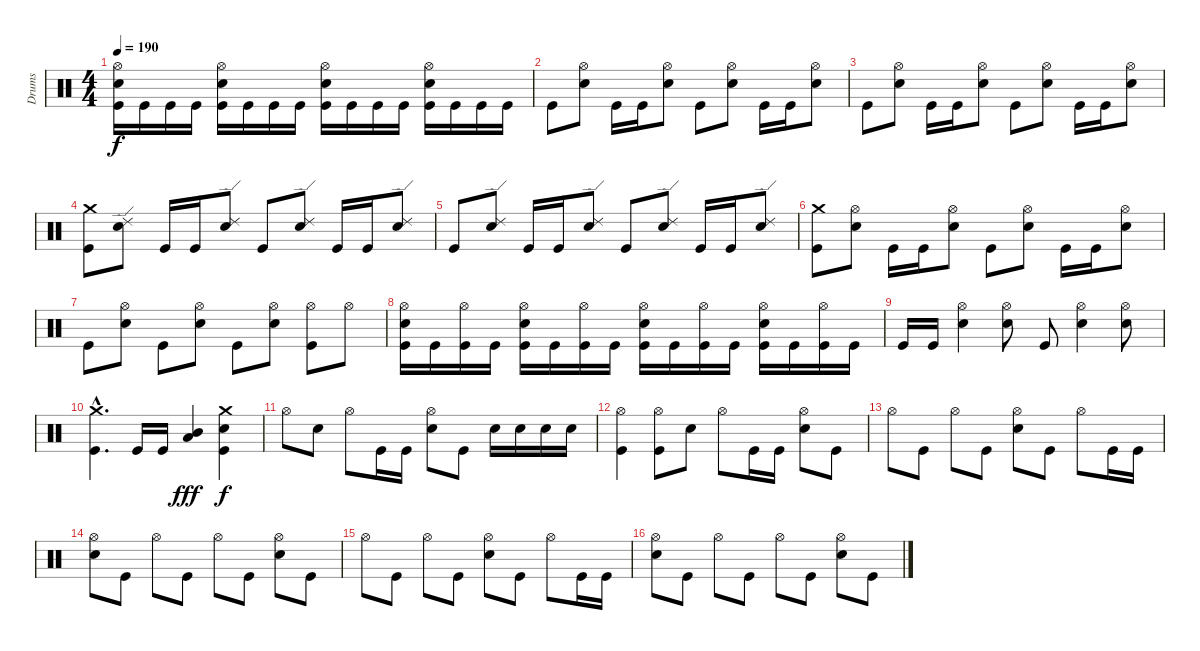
\track ("Drums" "Drums") {instrument percussion}
\staff {score}
\articulation defaults
\ts (4 4)
\tempo 190
\clef neutral
\ks c
("Hi-Hat (open)" "Electric Snare (hit)" "Kick (hit)").16{dy f} "Kick (hit)".16 "Kick (hit)".16 "Kick (hit)".16 ("Hi-Hat (open)" "Electric Snare (hit)" "Kick (hit)").16 "Kick (hit)".16 "Kick (hit)".16 "Kick (hit)".16 ("Hi-Hat (open)" "Electric Snare (hit)" "Kick (hit)").16 "Kick (hit)".16 "Kick (hit)".16 "Kick (hit)".16 ("Hi-Hat (open)" "Electric Snare (hit)" "Kick (hit)").16 "Kick (hit)".16 "Kick (hit)".16 "Kick (hit)".16 |
"Kick (hit)".8 ("Hi-Hat (open)" "Electric Snare (hit)").8 "Kick (hit)".16 "Kick (hit)".16 ("Hi-Hat (open)" "Electric Snare (hit)").8 "Kick (hit)".8 ("Hi-Hat (open)" "Electric Snare (hit)").8 "Kick (hit)".16 "Kick (hit)".16 ("Hi-Hat (open)" "Electric Snare (hit)").8 |
"Kick (hit)".8 ("Hi-Hat (open)" "Electric Snare (hit)").8 "Kick (hit)".16 "Kick (hit)".16 ("Hi-Hat (open)" "Electric Snare (hit)").8 "Kick (hit)".8 ("Hi-Hat (open)" "Electric Snare (hit)").8 "Kick (hit)".16 "Kick (hit)".16 ("Hi-Hat (open)" "Electric Snare (hit)").8 |
("Crash medium (hit)" "Kick (hit)").8 ("Ride (edge) 2" "Electric Snare (hit)").8 "Kick (hit)".16 "Kick (hit)".16 ("Ride (edge) 2" "Electric Snare (hit)").8 "Kick (hit)".8 ("Ride (edge) 2" "Electric Snare (hit)").8 "Kick (hit)".16 "Kick (hit)".16 ("Ride (edge) 2" "Electric Snare (hit)").8 |
"Kick (hit)".8 ("Ride (edge) 2" "Electric Snare (hit)").8 "Kick (hit)".16 "Kick (hit)".16 ("Ride (edge) 2" "Electric Snare (hit)").8 "Kick (hit)".8 ("Ride (edge) 2" "Electric Snare (hit)").8 "Kick (hit)".16 "Kick (hit)".16 ("Ride (edge) 2" "Electric Snare (hit)").8 |
("Crash medium (hit)" "Kick (hit)").8 ("Hi-Hat (open)" "Electric Snare (hit)").8 "Kick (hit)".16 "Kick (hit)".16 ("Hi-Hat (open)" "Electric Snare (hit)").8 "Kick (hit)".8 ("Hi-Hat (open)" "Electric Snare (hit)").8 "Kick (hit)".16 "Kick (hit)".16 ("Hi-Hat (open)" "Electric Snare (hit)").8 |
"Kick (hit)".8 ("Hi-Hat (open)" "Electric Snare (hit)").8 "Kick (hit)".8 ("Hi-Hat (open)" "Electric Snare (hit)").8 "Kick (hit)".8 ("Hi-Hat (open)" "Electric Snare (hit)").8 ("Hi-Hat (open)" "Kick (hit)").8 "Hi-Hat (open)".8 |
("Hi-Hat (open)" "Electric Snare (hit)" "Kick (hit)").16 "Kick (hit)".16 ("Hi-Hat (open)" "Kick (hit)").16 "Kick (hit)".16 ("Hi-Hat (open)" "Electric Snare (hit)" "Kick (hit)").16 "Kick (hit)".16 ("Hi-Hat (open)" "Kick (hit)").16 "Kick (hit)".16 ("Hi-Hat (open)" "Electric Snare (hit)" "Kick (hit)").16 "Kick (hit)".16 ("Hi-Hat (open)" "Kick (hit)").16 "Kick (hit)".16 ("Hi-Hat (open)" "Electric Snare (hit)" "Kick (hit)").16 "Kick (hit)".16 ("Hi-Hat (open)" "Kick (hit)").16 "Kick (hit)".16 |
"Kick (hit)".16 "Kick (hit)".16 ("Hi-Hat (open)" "Electric Snare (hit)").4 ("Hi-Hat (open)" "Electric Snare (hit)").8 "Kick (hit)".8 ("Hi-Hat (open)" "Electric Snare (hit)").4 ("Hi-Hat (open)" "Electric Snare (hit)").8 |
("Crash medium (hit)"{hac} "Kick (hit)"{hac}).4{d} "Kick (hit)".16 "Kick (hit)".16 ("Mid Tom (hit)" "Low Tom (hit)").4{dy fff} ("Kick (hit)" "Crash medium (hit)" "Electric Snare (hit)").4{dy f} |
"Hi-Hat (open)".8 "Electric Snare (hit)".8 "Hi-Hat (open)".8 "Kick (hit)".16 "Kick (hit)".16 ("Hi-Hat (open)" "Electric Snare (hit)").8 "Kick (hit)".8 "Electric Snare (hit)".16 "Electric Snare (hit)".16 "Electric Snare (hit)".16 "Electric Snare (hit)".16 |
("Hi-Hat (open)" "Kick (hit)").4 ("Hi-Hat (open)" "Kick (hit)").8 "Electric Snare (hit)".8 "Hi-Hat (open)".8 "Kick (hit)".16 "Kick (hit)".16 ("Hi-Hat (open)" "Electric Snare (hit)").8 "Kick (hit)".8 |
"Hi-Hat (open)".8 "Kick (hit)".8 "Hi-Hat (open)".8 "Kick (hit)".8 ("Hi-Hat (open)" "Electric Snare (hit)").8 "Kick (hit)".8 "Hi-Hat (open)".8 "Kick (hit)".16 "Kick (hit)".16 |
("Hi-Hat (open)" "Electric Snare (hit)").8 "Kick (hit)".8 "Hi-Hat (open)".8 "Kick (hit)".8 "Hi-Hat (open)".8 "Kick (hit)".8 ("Hi-Hat (open)" "Electric Snare (hit)").8 "Kick (hit)".8 |
"Hi-Hat (open)".8 "Kick (hit)".8 "Hi-Hat (open)".8 "Kick (hit)".8 ("Hi-Hat (open)" "Electric Snare (hit)").8 "Kick (hit)".8 "Hi-Hat (open)".8 "Kick (hit)".16 "Kick (hit)".16 |
("Hi-Hat (open)" "Electric Snare (hit)").8 "Kick (hit)".8 "Hi-Hat (open)".8 "Kick (hit)".8 "Hi-Hat (open)".8 "Kick (hit)".8 ("Hi-Hat (open)" "Electric Snare (hit)").8 "Kick (hit)".8
